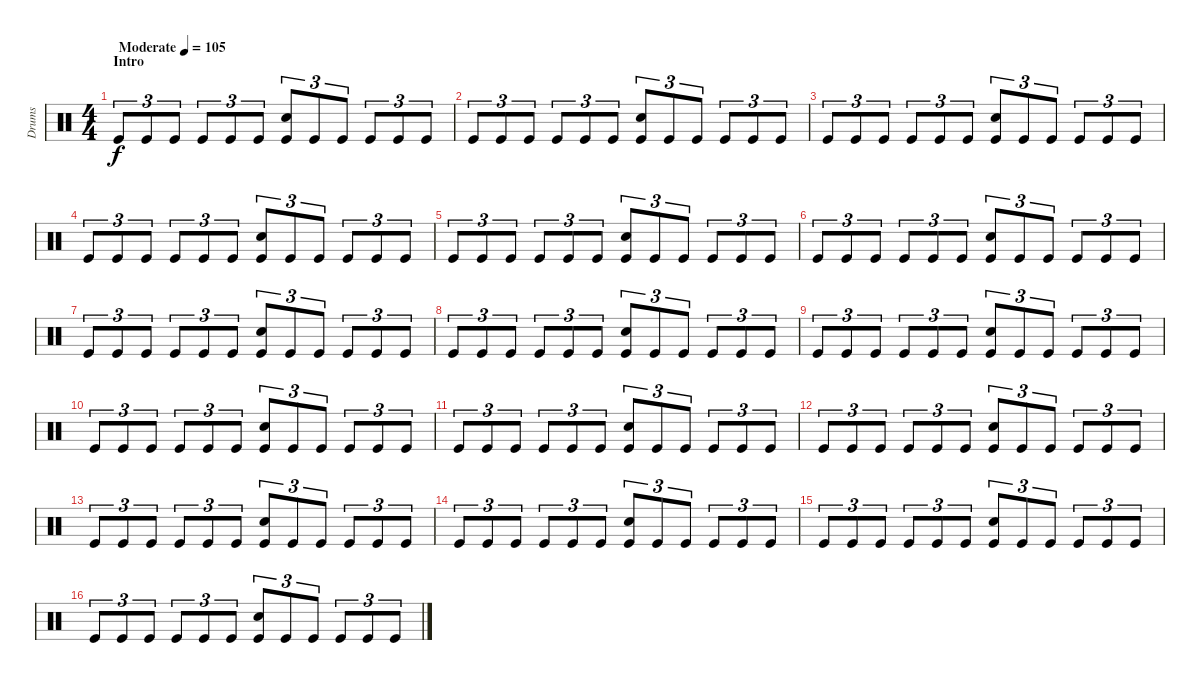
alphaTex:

\track ("Drums" "Drums") {instrument percussion}
\staff {score}
\articulation defaults
\ts (4 4)
\section ("" "Intro")
\tempo (105 "Moderate")
\clef neutral
\ks c "Kick (hit)".8{tu (3 2) dy f} "Kick (hit)".8{tu (3 2)} "Kick (hit)".8{tu (3 2)} "Kick (hit)".8{tu (3 2)} "Kick (hit)".8{tu (3 2)} "Kick (hit)".8{tu (3 2)}
("Electric Snare (hit)" "Kick (hit)").8{tu (3 2)} "Kick (hit)".8{tu (3 2)} "Kick (hit)".8{tu (3 2)} "Kick (hit)".8{tu (3 2)} "Kick (hit)".8{tu (3 2)} "Kick (hit)".8{tu (3 2)} |
"Kick (hit)".8{tu (3 2)} "Kick (hit)".8{tu (3 2)} "Kick (hit)".8{tu (3 2)} "Kick (hit)".8{tu (3 2)} "Kick (hit)".8{tu (3 2)} "Kick (hit)".8{tu (3 2)} ("Electric Snare (hit)" "Kick (hit)").8{tu (3 2)} "Kick (hit)".8{tu (3 2)} "Kick (hit)".8{tu (3 2)} "Kick (hit)".8{tu (3 2)} "Kick (hit)".8{tu (3 2)} "Kick (hit)".8{tu (3 2)} |
"Kick (hit)".8{tu (3 2)} "Kick (hit)".8{tu (3 2)} "Kick (hit)".8{tu (3 2)} "Kick (hit)".8{tu (3 2)} "Kick (hit)".8{tu (3 2)} "Kick (hit)".8{tu (3 2)} ("Electric Snare (hit)" "Kick (hit)").8{tu (3 2)} "Kick (hit)".8{tu (3 2)} "Kick (hit)".8{tu (3 2)} "Kick (hit)".8{tu (3 2)} "Kick (hit)".8{tu (3 2)} "Kick (hit)".8{tu (3 2)} |
"Kick (hit)".8{tu (3 2)} "Kick (hit)".8{tu (3 2)} "Kick (hit)".8{tu (3 2)} "Kick (hit)".8{tu (3 2)} "Kick (hit)".8{tu (3 2)} "Kick (hit)".8{tu (3 2)} ("Electric Snare (hit)" "Kick (hit)").8{tu (3 2)} "Kick (hit)".8{tu (3 2)} "Kick (hit)".8{tu (3 2)} "Kick (hit)".8{tu (3 2)} "Kick (hit)".8{tu (3 2)} "Kick (hit)".8{tu (3 2)} |
"Kick (hit)".8{tu (3 2)} "Kick (hit)".8{tu (3 2)} "Kick (hit)".8{tu (3 2)} "Kick (hit)".8{tu (3 2)} "Kick (hit)".8{tu (3 2)} "Kick (hit)".8{tu (3 2)} ("Electric Snare (hit)" "Kick (hit)").8{tu (3 2)} "Kick (hit)".8{tu (3 2)} "Kick (hit)".8{tu (3 2)} "Kick (hit)".8{tu (3 2)} "Kick (hit)".8{tu (3 2)} "Kick (hit)".8{tu (3 2)} |
"Kick (hit)".8{tu (3 2)} "Kick (hit)".8{tu (3 2)} "Kick (hit)".8{tu (3 2)} "Kick (hit)".8{tu (3 2)} "Kick (hit)".8{tu (3 2)} "Kick (hit)".8{tu (3 2)} ("Electric Snare (hit)" "Kick (hit)").8{tu (3 2)} "Kick (hit)".8{tu (3 2)} "Kick (hit)".8{tu (3 2)} "Kick (hit)".8{tu (3 2)} "Kick (hit)".8{tu (3 2)} "Kick (hit)".8{tu (3 2)} |
"Kick (hit)".8{tu (3 2)} "Kick (hit)".8{tu (3 2)} "Kick (hit)".8{tu (3 2)} "Kick (hit)".8{tu (3 2)} "Kick (hit)".8{tu (3 2)} "Kick (hit)".8{tu (3 2)} ("Electric Snare (hit)" "Kick (hit)").8{tu (3 2)} "Kick (hit)".8{tu (3 2)} "Kick (hit)".8{tu (3 2)} "Kick (hit)".8{tu (3 2)} "Kick (hit)".8{tu (3 2)} "Kick (hit)".8{tu (3 2)} |
"Kick (hit)".8{tu (3 2)} "Kick (hit)".8{tu (3 2)} "Kick (hit)".8{tu (3 2)} "Kick (hit)".8{tu (3 2)} "Kick (hit)".8{tu (3 2)} "Kick (hit)".8{tu (3 2)} ("Electric Snare (hit)" "Kick (hit)").8{tu (3 2)} "Kick (hit)".8{tu (3 2)} "Kick (hit)".8{tu (3 2)} "Kick (hit)".8{tu (3 2)} "Kick (hit)".8{tu (3 2)} "Kick (hit)".8{tu (3 2)} |
"Kick (hit)".8{tu (3 2)} "Kick (hit)".8{tu (3 2)} "Kick (hit)".8{tu (3 2)} "Kick (hit)".8{tu (3 2)} "Kick (hit)".8{tu (3 2)} "Kick (hit)".8{tu (3 2)} ("Electric Snare (hit)" "Kick (hit)").8{tu (3 2)} "Kick (hit)".8{tu (3 2)} "Kick (hit)".8{tu (3 2)} "Kick (hit)".8{tu (3 2)} "Kick (hit)".8{tu (3 2)} "Kick (hit)".8{tu (3 2)} |
"Kick (hit)".8{tu (3 2)} "Kick (hit)".8{tu (3 2)} "Kick (hit)".8{tu (3 2)} "Kick (hit)".8{tu (3 2)} "Kick (hit)".8{tu (3 2)} "Kick (hit)".8{tu (3 2)} ("Electric Snare (hit)" "Kick (hit)").8{tu (3 2)} "Kick (hit)".8{tu (3 2)} "Kick (hit)".8{tu (3 2)} "Kick (hit)".8{tu (3 2)} "Kick (hit)".8{tu (3 2)} "Kick (hit)".8{tu (3 2)} |
"Kick (hit)".8{tu (3 2)} "Kick (hit)".8{tu (3 2)} "Kick (hit)".8{tu (3 2)} "Kick (hit)".8{tu (3 2)} "Kick (hit)".8{tu (3 2)} "Kick (hit)".8{tu (3 2)} ("Electric Snare (hit)" "Kick (hit)").8{tu (3 2)} "Kick (hit)".8{tu (3 2)} "Kick (hit)".8{tu (3 2)} "Kick (hit)".8{tu (3 2)} "Kick (hit)".8{tu (3 2)} "Kick (hit)".8{tu (3 2)} |
"Kick (hit)".8{tu (3 2)} "Kick (hit)".8{tu (3 2)} "Kick (hit)".8{tu (3 2)} "Kick (hit)".8{tu (3 2)} "Kick (hit)".8{tu (3 2)} "Kick (hit)".8{tu (3 2)} ("Electric Snare (hit)" "Kick (hit)").8{tu (3 2)} "Kick (hit)".8{tu (3 2)} "Kick (hit)".8{tu (3 2)} "Kick (hit)".8{tu (3 2)} "Kick (hit)".8{tu (3 2)} "Kick (hit)".8{tu (3 2)} |
"Kick (hit)".8{tu (3 2)} "Kick (hit)".8{tu (3 2)} "Kick (hit)".8{tu (3 2)} "Kick (hit)".8{tu (3 2)} "Kick (hit)".8{tu (3 2)} "Kick (hit)".8{tu (3 2)} ("Electric Snare (hit)" "Kick (hit)").8{tu (3 2)} "Kick (hit)".8{tu (3 2)} "Kick (hit)".8{tu (3 2)} "Kick (hit)".8{tu (3 2)} "Kick (hit)".8{tu (3 2)} "Kick (hit)".8{tu (3 2)} |
"Kick (hit)".8{tu (3 2)} "Kick (hit)".8{tu (3 2)} "Kick (hit)".8{tu (3 2)} "Kick (hit)".8{tu (3 2)} "Kick (hit)".8{tu (3 2)} "Kick (hit)".8{tu (3 2)} ("Electric Snare (hit)" "Kick (hit)").8{tu (3 2)} "Kick (hit)".8{tu (3 2)} "Kick (hit)".8{tu (3 2)} "Kick (hit)".8{tu (3 2)} "Kick (hit)".8{tu (3 2)} "Kick (hit)".8{tu (3 2)} |
"Kick (hit)".8{tu (3 2)} "Kick (hit)".8{tu (3 2)} "Kick (hit)".8{tu (3 2)} "Kick (hit)".8{tu (3 2)} "Kick (hit)".8{tu (3 2)} "Kick (hit)".8{tu (3 2)} ("Electric Snare (hit)" "Kick (hit)").8{tu (3 2)} "Kick (hit)".8{tu (3 2)} "Kick (hit)".8{tu (3 2)} "Kick (hit)".8{tu (3 2)} "Kick (hit)".8{tu (3 2)} "Kick (hit)".8{tu (3 2)} |
"Kick (hit)".8{tu (3 2)} "Kick (hit)".8{tu (3 2)} "Kick (hit)".8{tu (3 2)} "Kick (hit)".8{tu (3 2)} "Kick (hit)".8{tu (3 2)} "Kick (hit)".8{tu (3 2)} ("Electric Snare (hit)" "Kick (hit)").8{tu (3 2)} "Kick (hit)".8{tu (3 2)} "Kick (hit)".8{tu (3 2)} "Kick (hit)".8{tu (3 2)} "Kick (hit)".8{tu (3 2)} "Kick (hit)".8{tu (3 2)}
